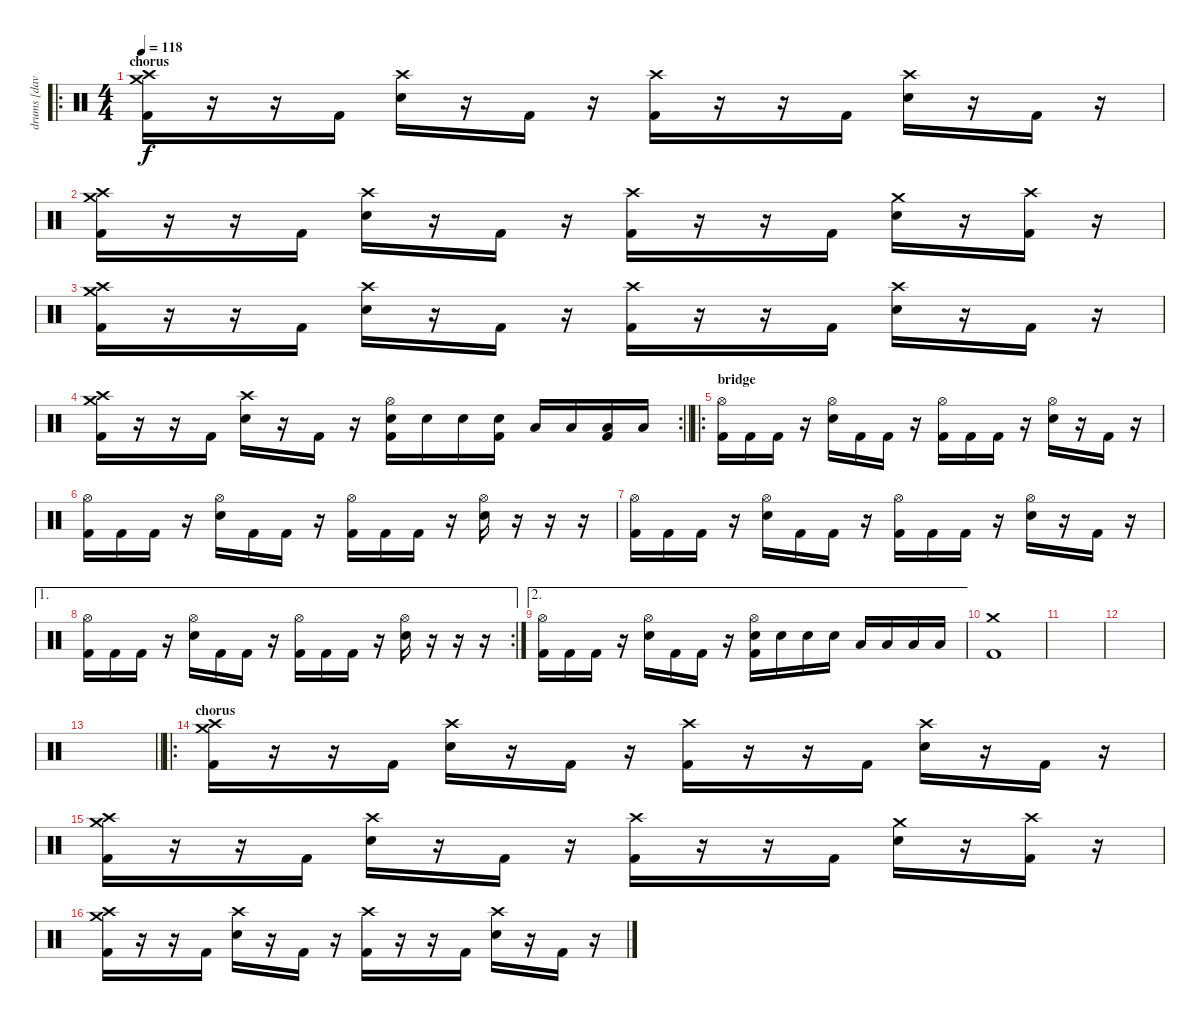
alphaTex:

\track ("drums [david]" "drums [dav") {instrument percussion}
\staff {score}
\articulation defaults
\ro
\ts (4 4)
\section ("" "chorus")
\tempo 118
\clef neutral
\ks c
("Crash high (hit)" "Crash medium (hit)" "Kick (hit) 2").16{dy f} r.16 r.16 "Kick (hit) 2".16 ("Crash high (hit)" "Electric Snare (hit)").16 r.16 "Kick (hit) 2".16 r.16 ("Crash high (hit)" "Kick (hit) 2").16 r.16 r.16 "Kick (hit) 2".16 ("Crash high (hit)" "Electric Snare (hit)").16 r.16 "Kick (hit) 2".16 r.16 |
("Crash high (hit)" "Crash medium (hit)" "Kick (hit) 2").16 r.16 r.16 "Kick (hit) 2".16 ("Crash high (hit)" "Electric Snare (hit)").16 r.16 "Kick (hit) 2".16 r.16 ("Crash high (hit)" "Kick (hit) 2").16 r.16 r.16 "Kick (hit) 2".16 ("Crash medium (hit)" "Electric Snare (hit)").16 r.16 ("Crash high (hit)" "Kick (hit) 2").16 r.16 |
("Crash high (hit)" "Crash medium (hit)" "Kick (hit) 2").16 r.16 r.16 "Kick (hit) 2".16 ("Crash high (hit)" "Electric Snare (hit)").16 r.16 "Kick (hit) 2".16 r.16 ("Crash high (hit)" "Kick (hit) 2").16 r.16 r.16 "Kick (hit) 2".16 ("Crash high (hit)" "Electric Snare (hit)").16 r.16 "Kick (hit) 2".16 r.16 |
\rc 2
\barLineRight lightlight
("Crash high (hit)" "Crash medium (hit)" "Kick (hit) 2").16 r.16 r.16 "Kick (hit) 2".16 ("Crash high (hit)" "Electric Snare (hit)").16 r.16 "Kick (hit) 2".16 r.16 ("Hi-Hat (open)" "Electric Snare (hit)" "Kick (hit) 2").16 "Electric Snare (hit)".16 "Electric Snare (hit)".16 ("Electric Snare (hit)" "Kick (hit) 2").16 "Low Tom (hit)".16 "Low Tom (hit)".16 ("Low Tom (hit)" "Kick (hit) 2").16 "Low Tom (hit)".16 |
\ro
\section ("" "bridge")
("Hi-Hat (open)" "Kick (hit) 2").16 "Kick (hit) 2".16 "Kick (hit) 2".16 r.16 ("Hi-Hat (open)" "Electric Snare (hit)").16 "Kick (hit) 2".16 "Kick (hit) 2".16 r.16 ("Hi-Hat (open)" "Kick (hit) 2").16 "Kick (hit) 2".16 "Kick (hit) 2".16 r.16 ("Hi-Hat (open)" "Electric Snare (hit)").16 r.16 "Kick (hit) 2".16 r.16 |
("Hi-Hat (open)" "Kick (hit) 2").16 "Kick (hit) 2".16 "Kick (hit) 2".16 r.16 ("Hi-Hat (open)" "Electric Snare (hit)").16 "Kick (hit) 2".16 "Kick (hit) 2".16 r.16 ("Hi-Hat (open)" "Kick (hit) 2").16 "Kick (hit) 2".16 "Kick (hit) 2".16 r.16 ("Hi-Hat (open)" "Electric Snare (hit)").16 r.16 r.16 r.16 |
("Hi-Hat (open)" "Kick (hit) 2").16 "Kick (hit) 2".16 "Kick (hit) 2".16 r.16 ("Hi-Hat (open)" "Electric Snare (hit)").16 "Kick (hit) 2".16 "Kick (hit) 2".16 r.16 ("Hi-Hat (open)" "Kick (hit) 2").16 "Kick (hit) 2".16 "Kick (hit) 2".16 r.16 ("Hi-Hat (open)" "Electric Snare (hit)").16 r.16 "Kick (hit) 2".16 r.16 |
\ae 1
\rc 2
("Hi-Hat (open)" "Kick (hit) 2").16 "Kick (hit) 2".16 "Kick (hit) 2".16 r.16 ("Hi-Hat (open)" "Electric Snare (hit)").16 "Kick (hit) 2".16 "Kick (hit) 2".16 r.16 ("Hi-Hat (open)" "Kick (hit) 2").16 "Kick (hit) 2".16 "Kick (hit) 2".16 r.16 ("Hi-Hat (open)" "Electric Snare (hit)").16 r.16 r.16 r.16 |
\ae 2
("Hi-Hat (open)" "Kick (hit) 2").16 "Kick (hit) 2".16 "Kick (hit) 2".16 r.16 ("Hi-Hat (open)" "Electric Snare (hit)").16 "Kick (hit) 2".16 "Kick (hit) 2".16 r.16 ("Hi-Hat (open)" "Electric Snare (hit)" "Kick (hit) 2").16 "Electric Snare (hit)".16 "Electric Snare (hit)".16 "Electric Snare (hit)".16 "Low Tom (hit)".16 "Low Tom (hit)".16 "Low Tom (hit)".16 "Low Tom (hit)".16 |
("Crash medium (hit)" "Kick (hit) 2").1 |
|
|
\barLineRight lightlight
|
\ro
\section ("" "chorus")
("Crash high (hit)" "Crash medium (hit)" "Kick (hit) 2").16 r.16 r.16 "Kick (hit) 2".16 ("Crash high (hit)" "Electric Snare (hit)").16 r.16 "Kick (hit) 2".16 r.16 ("Crash high (hit)" "Kick (hit) 2").16 r.16 r.16 "Kick (hit) 2".16 ("Crash high (hit)" "Electric Snare (hit)").16 r.16 "Kick (hit) 2".16 r.16 |
("Crash high (hit)" "Crash medium (hit)" "Kick (hit) 2").16 r.16 r.16 "Kick (hit) 2".16 ("Crash high (hit)" "Electric Snare (hit)").16 r.16 "Kick (hit) 2".16 r.16 ("Crash high (hit)" "Kick (hit) 2").16 r.16 r.16 "Kick (hit) 2".16 ("Crash medium (hit)" "Electric Snare (hit)").16 r.16 ("Crash high (hit)" "Kick (hit) 2").16 r.16 |
("Crash high (hit)" "Crash medium (hit)" "Kick (hit) 2").16 r.16 r.16 "Kick (hit) 2".16 ("Crash high (hit)" "Electric Snare (hit)").16 r.16 "Kick (hit) 2".16 r.16 ("Crash high (hit)" "Kick (hit) 2").16 r.16 r.16 "Kick (hit) 2".16 ("Crash high (hit)" "Electric Snare (hit)").16 r.16 "Kick (hit) 2".16 r.16
